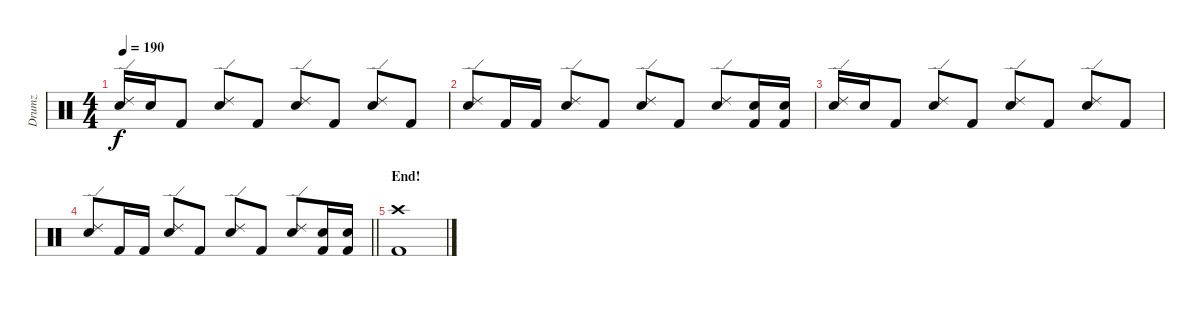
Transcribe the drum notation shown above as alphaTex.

\track ("Drumz" "Drumz") {instrument percussion}
\staff {score}
\articulation defaults
\ts (4 4)
\tempo 190
\clef neutral
\ks c
("Ride (edge) 2" "Snare (hit) 2").16{dy f} "Snare (hit) 2".16 "Kick (hit) 2".8 ("Ride (edge) 2" "Snare (hit) 2").8 "Kick (hit) 2".8 ("Ride (edge) 2" "Snare (hit) 2").8 "Kick (hit) 2".8 ("Ride (edge) 2" "Snare (hit) 2").8 "Kick (hit) 2".8 |
("Ride (edge) 2" "Snare (hit) 2").8 "Kick (hit) 2".16 "Kick (hit) 2".16 ("Ride (edge) 2" "Snare (hit) 2").8 "Kick (hit) 2".8 ("Ride (edge) 2" "Snare (hit) 2").8 "Kick (hit) 2".8 ("Ride (edge) 2" "Snare (hit) 2").8 ("Snare (hit) 2" "Kick (hit) 2").16 ("Snare (hit) 2" "Kick (hit) 2").16 |
("Ride (edge) 2" "Snare (hit) 2").16 "Snare (hit) 2".16 "Kick (hit) 2".8 ("Ride (edge) 2" "Snare (hit) 2").8 "Kick (hit) 2".8 ("Ride (edge) 2" "Snare (hit) 2").8 "Kick (hit) 2".8 ("Ride (edge) 2" "Snare (hit) 2").8 "Kick (hit) 2".8 |
\barLineRight lightlight
("Ride (edge) 2" "Snare (hit) 2").8 "Kick (hit) 2".16 "Kick (hit) 2".16 ("Ride (edge) 2" "Snare (hit) 2").8 "Kick (hit) 2".8 ("Ride (edge) 2" "Snare (hit) 2").8 "Kick (hit) 2".8 ("Ride (edge) 2" "Snare (hit) 2").8 ("Snare (hit) 2" "Kick (hit) 2").16 ("Snare (hit) 2" "Kick (hit) 2").16 |
\section ("" "End!")
("Crash high (hit)" "Kick (hit) 2").1
